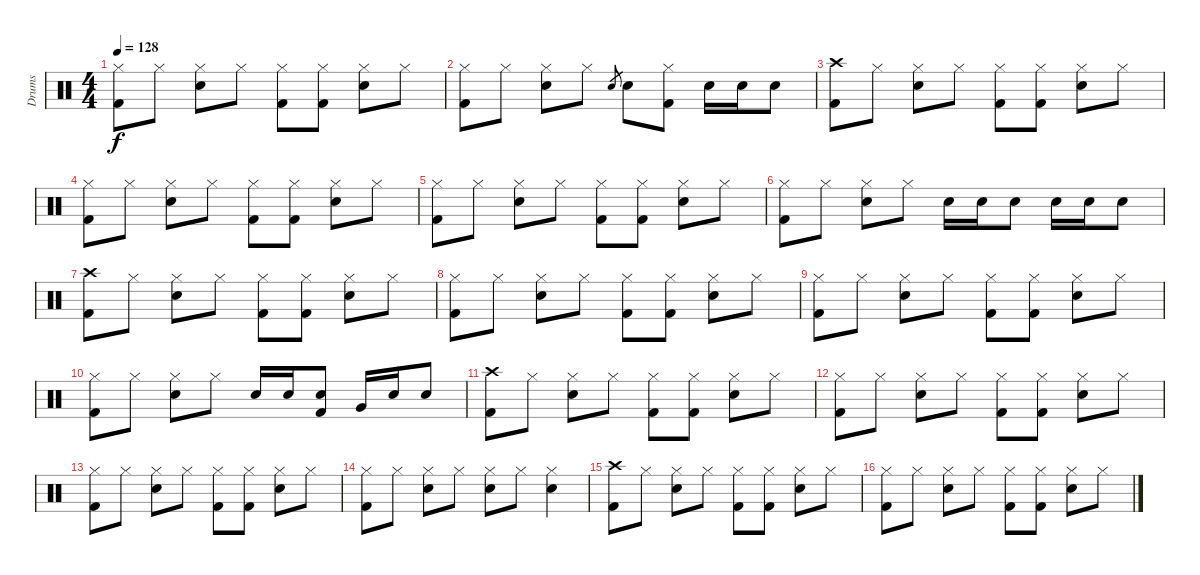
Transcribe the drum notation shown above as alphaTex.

\track ("Drums" "Drums") {instrument percussion}
\staff {score}
\articulation defaults
\ts (4 4)
\tempo 128
\clef neutral
\ks c
("Hi-Hat (closed)" "Kick (hit) 2").8{dy f} "Hi-Hat (closed)".8 ("Hi-Hat (closed)" "Snare (hit) 2").8 "Hi-Hat (closed)".8 ("Hi-Hat (closed)" "Kick (hit) 2").8 ("Hi-Hat (closed)" "Kick (hit) 2").8 ("Hi-Hat (closed)" "Snare (hit) 2").8 "Hi-Hat (closed)".8 |
("Hi-Hat (closed)" "Kick (hit) 2").8 "Hi-Hat (closed)".8 ("Hi-Hat (closed)" "Snare (hit) 2").8 "Hi-Hat (closed)".8 "Snare (hit) 2".8{gr} "Snare (hit) 2".8 ("Hi-Hat (closed)" "Kick (hit) 2").8 "Snare (hit) 2".16 "Snare (hit) 2".16 "Snare (hit) 2".8 |
("Crash high (hit)" "Kick (hit) 2").8 "Hi-Hat (closed)".8 ("Hi-Hat (closed)" "Snare (hit) 2").8 "Hi-Hat (closed)".8 ("Hi-Hat (closed)" "Kick (hit) 2").8 ("Hi-Hat (closed)" "Kick (hit) 2").8 ("Hi-Hat (closed)" "Snare (hit) 2").8 "Hi-Hat (closed)".8 |
("Hi-Hat (closed)" "Kick (hit) 2").8 "Hi-Hat (closed)".8 ("Hi-Hat (closed)" "Snare (hit) 2").8 "Hi-Hat (closed)".8 ("Hi-Hat (closed)" "Kick (hit) 2").8 ("Hi-Hat (closed)" "Kick (hit) 2").8 ("Hi-Hat (closed)" "Snare (hit) 2").8 "Hi-Hat (closed)".8 |
("Hi-Hat (closed)" "Kick (hit) 2").8 "Hi-Hat (closed)".8 ("Hi-Hat (closed)" "Snare (hit) 2").8 "Hi-Hat (closed)".8 ("Hi-Hat (closed)" "Kick (hit) 2").8 ("Hi-Hat (closed)" "Kick (hit) 2").8 ("Hi-Hat (closed)" "Snare (hit) 2").8 "Hi-Hat (closed)".8 |
("Hi-Hat (closed)" "Kick (hit) 2").8 "Hi-Hat (closed)".8 ("Hi-Hat (closed)" "Snare (hit) 2").8 "Hi-Hat (closed)".8 "Snare (hit) 2".16 "Snare (hit) 2".16 "Snare (hit) 2".8 "Snare (hit) 2".16 "Snare (hit) 2".16 "Snare (hit) 2".8 |
("Crash high (hit)" "Kick (hit) 2").8 "Hi-Hat (closed)".8 ("Hi-Hat (closed)" "Snare (hit) 2").8 "Hi-Hat (closed)".8 ("Hi-Hat (closed)" "Kick (hit) 2").8 ("Hi-Hat (closed)" "Kick (hit) 2").8 ("Hi-Hat (closed)" "Snare (hit) 2").8 "Hi-Hat (closed)".8 |
("Hi-Hat (closed)" "Kick (hit) 2").8 "Hi-Hat (closed)".8 ("Hi-Hat (closed)" "Snare (hit) 2").8 "Hi-Hat (closed)".8 ("Hi-Hat (closed)" "Kick (hit) 2").8 ("Hi-Hat (closed)" "Kick (hit) 2").8 ("Hi-Hat (closed)" "Snare (hit) 2").8 "Hi-Hat (closed)".8 |
("Hi-Hat (closed)" "Kick (hit) 2").8 "Hi-Hat (closed)".8 ("Hi-Hat (closed)" "Snare (hit) 2").8 "Hi-Hat (closed)".8 ("Hi-Hat (closed)" "Kick (hit) 2").8 ("Hi-Hat (closed)" "Kick (hit) 2").8 ("Hi-Hat (closed)" "Snare (hit) 2").8 "Hi-Hat (closed)".8 |
("Hi-Hat (closed)" "Kick (hit) 2").8 "Hi-Hat (closed)".8 ("Hi-Hat (closed)" "Snare (hit) 2").8 "Hi-Hat (closed)".8 "Snare (hit) 2".16 "Snare (hit) 2".16 ("Snare (hit) 2" "Kick (hit) 2").8 "Very Low Tom (hit)".16 "Snare (hit) 2".16 "Snare (hit) 2".8 |
("Crash high (hit)" "Kick (hit) 2").8 "Hi-Hat (closed)".8 ("Hi-Hat (closed)" "Snare (hit) 2").8 "Hi-Hat (closed)".8 ("Hi-Hat (closed)" "Kick (hit) 2").8 ("Hi-Hat (closed)" "Kick (hit) 2").8 ("Hi-Hat (closed)" "Snare (hit) 2").8 "Hi-Hat (closed)".8 |
("Hi-Hat (closed)" "Kick (hit) 2").8 "Hi-Hat (closed)".8 ("Hi-Hat (closed)" "Snare (hit) 2").8 "Hi-Hat (closed)".8 ("Hi-Hat (closed)" "Kick (hit) 2").8 ("Hi-Hat (closed)" "Kick (hit) 2").8 ("Hi-Hat (closed)" "Snare (hit) 2").8 "Hi-Hat (closed)".8 |
("Hi-Hat (closed)" "Kick (hit) 2").8 "Hi-Hat (closed)".8 ("Hi-Hat (closed)" "Snare (hit) 2").8 "Hi-Hat (closed)".8 ("Hi-Hat (closed)" "Kick (hit) 2").8 ("Hi-Hat (closed)" "Kick (hit) 2").8 ("Hi-Hat (closed)" "Snare (hit) 2").8 "Hi-Hat (closed)".8 |
("Hi-Hat (closed)" "Kick (hit) 2").8 "Hi-Hat (closed)".8 ("Hi-Hat (closed)" "Snare (hit) 2").8 "Hi-Hat (closed)".8 ("Hi-Hat (closed)" "Snare (hit) 2").8 "Hi-Hat (closed)".8 ("Hi-Hat (closed)" "Snare (hit) 2").4 |
("Crash high (hit)" "Kick (hit) 2").8 "Hi-Hat (closed)".8 ("Hi-Hat (closed)" "Snare (hit) 2").8 "Hi-Hat (closed)".8 ("Hi-Hat (closed)" "Kick (hit) 2").8 ("Hi-Hat (closed)" "Kick (hit) 2").8 ("Hi-Hat (closed)" "Snare (hit) 2").8 "Hi-Hat (closed)".8 |
("Hi-Hat (closed)" "Kick (hit) 2").8 "Hi-Hat (closed)".8 ("Hi-Hat (closed)" "Snare (hit) 2").8 "Hi-Hat (closed)".8 ("Hi-Hat (closed)" "Kick (hit) 2").8 ("Hi-Hat (closed)" "Kick (hit) 2").8 ("Hi-Hat (closed)" "Snare (hit) 2").8 "Hi-Hat (closed)".8
